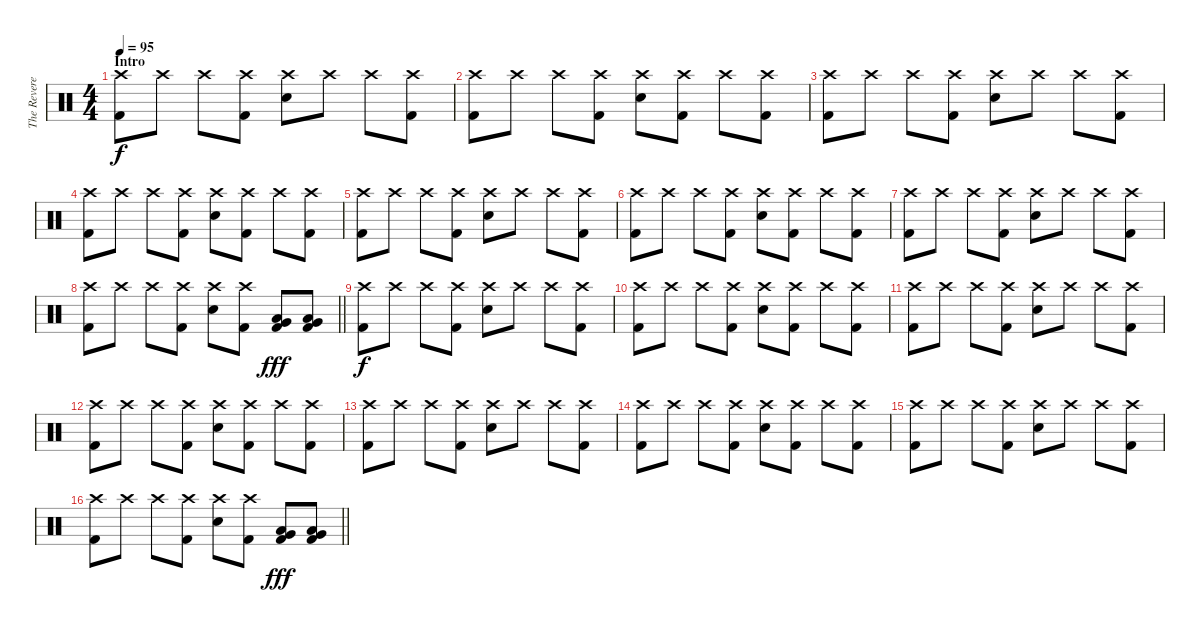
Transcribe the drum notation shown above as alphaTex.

\track ("The Reverend" "The Revere") {instrument percussion}
\staff {score}
\articulation defaults
\ts (4 4)
\section ("" "Intro")
\tempo 95
\clef neutral
\ks c
("Crash high (hit)" "Kick (hit) 2").8{dy f} "Crash high (hit)".8 "Crash high (hit)".8 ("Crash high (hit)" "Kick (hit) 2").8 ("Crash high (hit)" "Electric Snare (hit)").8 "Crash high (hit)".8 "Crash high (hit)".8 ("Crash high (hit)" "Kick (hit) 2").8 |
("Crash high (hit)" "Kick (hit) 2").8 "Crash high (hit)".8 "Crash high (hit)".8 ("Crash high (hit)" "Kick (hit) 2").8 ("Crash high (hit)" "Electric Snare (hit)").8 ("Crash high (hit)" "Kick (hit) 2").8 "Crash high (hit)".8 ("Crash high (hit)" "Kick (hit) 2").8 |
("Crash high (hit)" "Kick (hit) 2").8 "Crash high (hit)".8 "Crash high (hit)".8 ("Crash high (hit)" "Kick (hit) 2").8 ("Crash high (hit)" "Electric Snare (hit)").8 "Crash high (hit)".8 "Crash high (hit)".8 ("Crash high (hit)" "Kick (hit) 2").8 |
("Crash high (hit)" "Kick (hit) 2").8 "Crash high (hit)".8 "Crash high (hit)".8 ("Crash high (hit)" "Kick (hit) 2").8 ("Crash high (hit)" "Electric Snare (hit)").8 ("Crash high (hit)" "Kick (hit) 2").8 "Crash high (hit)".8 ("Crash high (hit)" "Kick (hit) 2").8 |
("Crash high (hit)" "Kick (hit) 2").8 "Crash high (hit)".8 "Crash high (hit)".8 ("Crash high (hit)" "Kick (hit) 2").8 ("Crash high (hit)" "Electric Snare (hit)").8 "Crash high (hit)".8 "Crash high (hit)".8 ("Crash high (hit)" "Kick (hit) 2").8 |
("Crash high (hit)" "Kick (hit) 2").8 "Crash high (hit)".8 "Crash high (hit)".8 ("Crash high (hit)" "Kick (hit) 2").8 ("Crash high (hit)" "Electric Snare (hit)").8 ("Crash high (hit)" "Kick (hit) 2").8 "Crash high (hit)".8 ("Crash high (hit)" "Kick (hit) 2").8 |
("Crash high (hit)" "Kick (hit) 2").8 "Crash high (hit)".8 "Crash high (hit)".8 ("Crash high (hit)" "Kick (hit) 2").8 ("Crash high (hit)" "Electric Snare (hit)").8 "Crash high (hit)".8 "Crash high (hit)".8 ("Crash high (hit)" "Kick (hit) 2").8 |
\barLineRight lightlight
("Crash high (hit)" "Kick (hit) 2").8 "Crash high (hit)".8 "Crash high (hit)".8 ("Crash high (hit)" "Kick (hit) 2").8 ("Crash high (hit)" "Electric Snare (hit)").8 ("Crash high (hit)" "Kick (hit) 2").8 ("Very Low Tom (hit)" "Low Tom (hit)" "Kick (hit) 2").8{dy fff} ("Low Tom (hit)" "Very Low Tom (hit)" "Kick (hit) 2").8 |
("Crash high (hit)" "Kick (hit) 2").8{dy f} "Crash high (hit)".8 "Crash high (hit)".8 ("Crash high (hit)" "Kick (hit) 2").8 ("Crash high (hit)" "Electric Snare (hit)").8 "Crash high (hit)".8 "Crash high (hit)".8 ("Crash high (hit)" "Kick (hit) 2").8 |
("Crash high (hit)" "Kick (hit) 2").8 "Crash high (hit)".8 "Crash high (hit)".8 ("Crash high (hit)" "Kick (hit) 2").8 ("Crash high (hit)" "Electric Snare (hit)").8 ("Crash high (hit)" "Kick (hit) 2").8 "Crash high (hit)".8 ("Crash high (hit)" "Kick (hit) 2").8 |
("Crash high (hit)" "Kick (hit) 2").8 "Crash high (hit)".8 "Crash high (hit)".8 ("Crash high (hit)" "Kick (hit) 2").8 ("Crash high (hit)" "Electric Snare (hit)").8 "Crash high (hit)".8 "Crash high (hit)".8 ("Crash high (hit)" "Kick (hit) 2").8 |
("Crash high (hit)" "Kick (hit) 2").8 "Crash high (hit)".8 "Crash high (hit)".8 ("Crash high (hit)" "Kick (hit) 2").8 ("Crash high (hit)" "Electric Snare (hit)").8 ("Crash high (hit)" "Kick (hit) 2").8 "Crash high (hit)".8 ("Crash high (hit)" "Kick (hit) 2").8 |
("Crash high (hit)" "Kick (hit) 2").8 "Crash high (hit)".8 "Crash high (hit)".8 ("Crash high (hit)" "Kick (hit) 2").8 ("Crash high (hit)" "Electric Snare (hit)").8 "Crash high (hit)".8 "Crash high (hit)".8 ("Crash high (hit)" "Kick (hit) 2").8 |
("Crash high (hit)" "Kick (hit) 2").8 "Crash high (hit)".8 "Crash high (hit)".8 ("Crash high (hit)" "Kick (hit) 2").8 ("Crash high (hit)" "Electric Snare (hit)").8 ("Crash high (hit)" "Kick (hit) 2").8 "Crash high (hit)".8 ("Crash high (hit)" "Kick (hit) 2").8 |
("Crash high (hit)" "Kick (hit) 2").8 "Crash high (hit)".8 "Crash high (hit)".8 ("Crash high (hit)" "Kick (hit) 2").8 ("Crash high (hit)" "Electric Snare (hit)").8 "Crash high (hit)".8 "Crash high (hit)".8 ("Crash high (hit)" "Kick (hit) 2").8 |
\barLineRight lightlight
("Crash high (hit)" "Kick (hit) 2").8 "Crash high (hit)".8 "Crash high (hit)".8 ("Crash high (hit)" "Kick (hit) 2").8 ("Crash high (hit)" "Electric Snare (hit)").8 ("Crash high (hit)" "Kick (hit) 2").8 ("Low Tom (hit)" "Very Low Tom (hit)" "Kick (hit) 2").8{dy fff} ("Low Tom (hit)" "Very Low Tom (hit)" "Kick (hit) 2").8
